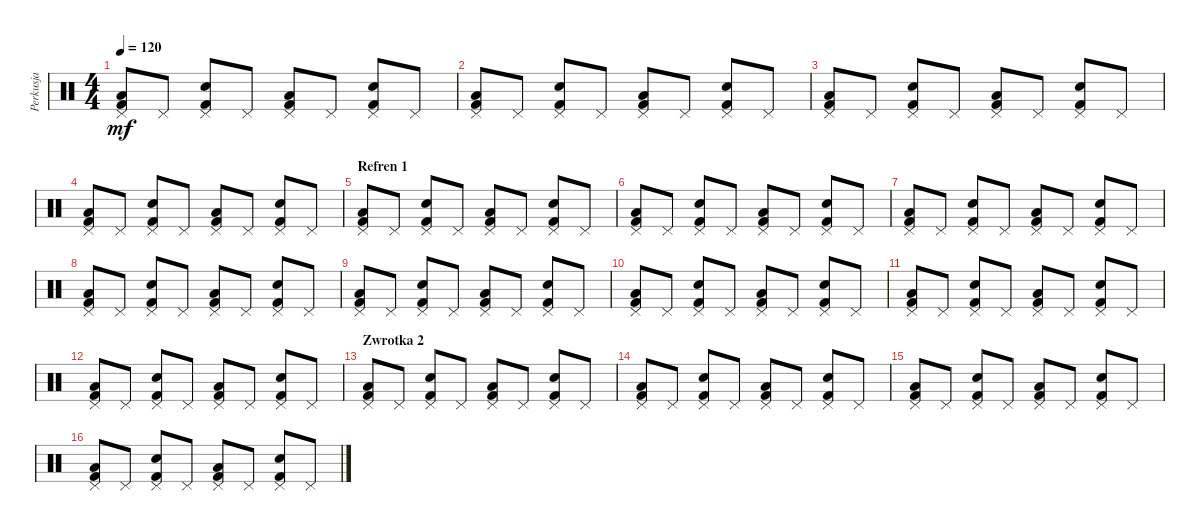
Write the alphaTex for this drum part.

\track ("Perkusja" "Perkusja") {instrument percussion}
\staff {score}
\articulation defaults
\ts (4 4)
\tempo 120
\clef neutral
\ks c
("Pedal Hi-Hat (hit)" "Low Floor Tom (hit)" "Kick (hit) 2").8{dy mf} "Pedal Hi-Hat (hit)".8 ("Pedal Hi-Hat (hit)" "Electric Snare (hit)" "Kick (hit) 2").8 "Pedal Hi-Hat (hit)".8 ("Pedal Hi-Hat (hit)" "Low Floor Tom (hit)" "Kick (hit) 2").8 "Pedal Hi-Hat (hit)".8 ("Pedal Hi-Hat (hit)" "Electric Snare (hit)" "Kick (hit) 2").8 "Pedal Hi-Hat (hit)".8 |
("Pedal Hi-Hat (hit)" "Low Floor Tom (hit)" "Kick (hit) 2").8 "Pedal Hi-Hat (hit)".8 ("Pedal Hi-Hat (hit)" "Electric Snare (hit)" "Kick (hit) 2").8 "Pedal Hi-Hat (hit)".8 ("Pedal Hi-Hat (hit)" "Low Floor Tom (hit)" "Kick (hit) 2").8 "Pedal Hi-Hat (hit)".8 ("Pedal Hi-Hat (hit)" "Electric Snare (hit)" "Kick (hit) 2").8 "Pedal Hi-Hat (hit)".8 |
("Pedal Hi-Hat (hit)" "Low Floor Tom (hit)" "Kick (hit) 2").8 "Pedal Hi-Hat (hit)".8 ("Pedal Hi-Hat (hit)" "Electric Snare (hit)" "Kick (hit) 2").8 "Pedal Hi-Hat (hit)".8 ("Pedal Hi-Hat (hit)" "Low Floor Tom (hit)" "Kick (hit) 2").8 "Pedal Hi-Hat (hit)".8 ("Pedal Hi-Hat (hit)" "Electric Snare (hit)" "Kick (hit) 2").8 "Pedal Hi-Hat (hit)".8 |
("Pedal Hi-Hat (hit)" "Low Floor Tom (hit)" "Kick (hit) 2").8 "Pedal Hi-Hat (hit)".8 ("Pedal Hi-Hat (hit)" "Electric Snare (hit)" "Kick (hit) 2").8 "Pedal Hi-Hat (hit)".8 ("Pedal Hi-Hat (hit)" "Low Floor Tom (hit)" "Kick (hit) 2").8 "Pedal Hi-Hat (hit)".8 ("Pedal Hi-Hat (hit)" "Electric Snare (hit)" "Kick (hit) 2").8 "Pedal Hi-Hat (hit)".8 |
\section ("" "Refren 1")
("Pedal Hi-Hat (hit)" "Low Floor Tom (hit)" "Kick (hit) 2").8 "Pedal Hi-Hat (hit)".8 ("Pedal Hi-Hat (hit)" "Electric Snare (hit)" "Kick (hit) 2").8 "Pedal Hi-Hat (hit)".8 ("Pedal Hi-Hat (hit)" "Low Floor Tom (hit)" "Kick (hit) 2").8 "Pedal Hi-Hat (hit)".8 ("Pedal Hi-Hat (hit)" "Electric Snare (hit)" "Kick (hit) 2").8 "Pedal Hi-Hat (hit)".8 |
("Pedal Hi-Hat (hit)" "Low Floor Tom (hit)" "Kick (hit) 2").8 "Pedal Hi-Hat (hit)".8 ("Pedal Hi-Hat (hit)" "Electric Snare (hit)" "Kick (hit) 2").8 "Pedal Hi-Hat (hit)".8 ("Pedal Hi-Hat (hit)" "Low Floor Tom (hit)" "Kick (hit) 2").8 "Pedal Hi-Hat (hit)".8 ("Pedal Hi-Hat (hit)" "Electric Snare (hit)" "Kick (hit) 2").8 "Pedal Hi-Hat (hit)".8 |
("Pedal Hi-Hat (hit)" "Low Floor Tom (hit)" "Kick (hit) 2").8 "Pedal Hi-Hat (hit)".8 ("Pedal Hi-Hat (hit)" "Electric Snare (hit)" "Kick (hit) 2").8 "Pedal Hi-Hat (hit)".8 ("Pedal Hi-Hat (hit)" "Low Floor Tom (hit)" "Kick (hit) 2").8 "Pedal Hi-Hat (hit)".8 ("Pedal Hi-Hat (hit)" "Electric Snare (hit)" "Kick (hit) 2").8 "Pedal Hi-Hat (hit)".8 |
("Pedal Hi-Hat (hit)" "Low Floor Tom (hit)" "Kick (hit) 2").8 "Pedal Hi-Hat (hit)".8 ("Pedal Hi-Hat (hit)" "Electric Snare (hit)" "Kick (hit) 2").8 "Pedal Hi-Hat (hit)".8 ("Pedal Hi-Hat (hit)" "Low Floor Tom (hit)" "Kick (hit) 2").8 "Pedal Hi-Hat (hit)".8 ("Pedal Hi-Hat (hit)" "Electric Snare (hit)" "Kick (hit) 2").8 "Pedal Hi-Hat (hit)".8 |
("Pedal Hi-Hat (hit)" "Low Floor Tom (hit)" "Kick (hit) 2").8 "Pedal Hi-Hat (hit)".8 ("Pedal Hi-Hat (hit)" "Electric Snare (hit)" "Kick (hit) 2").8 "Pedal Hi-Hat (hit)".8 ("Pedal Hi-Hat (hit)" "Low Floor Tom (hit)" "Kick (hit) 2").8 "Pedal Hi-Hat (hit)".8 ("Pedal Hi-Hat (hit)" "Electric Snare (hit)" "Kick (hit) 2").8 "Pedal Hi-Hat (hit)".8 |
("Pedal Hi-Hat (hit)" "Low Floor Tom (hit)" "Kick (hit) 2").8 "Pedal Hi-Hat (hit)".8 ("Pedal Hi-Hat (hit)" "Electric Snare (hit)" "Kick (hit) 2").8 "Pedal Hi-Hat (hit)".8 ("Pedal Hi-Hat (hit)" "Low Floor Tom (hit)" "Kick (hit) 2").8 "Pedal Hi-Hat (hit)".8 ("Pedal Hi-Hat (hit)" "Electric Snare (hit)" "Kick (hit) 2").8 "Pedal Hi-Hat (hit)".8 |
("Pedal Hi-Hat (hit)" "Low Floor Tom (hit)" "Kick (hit) 2").8 "Pedal Hi-Hat (hit)".8 ("Pedal Hi-Hat (hit)" "Electric Snare (hit)" "Kick (hit) 2").8 "Pedal Hi-Hat (hit)".8 ("Pedal Hi-Hat (hit)" "Low Floor Tom (hit)" "Kick (hit) 2").8 "Pedal Hi-Hat (hit)".8 ("Pedal Hi-Hat (hit)" "Electric Snare (hit)" "Kick (hit) 2").8 "Pedal Hi-Hat (hit)".8 |
("Pedal Hi-Hat (hit)" "Low Floor Tom (hit)" "Kick (hit) 2").8 "Pedal Hi-Hat (hit)".8 ("Pedal Hi-Hat (hit)" "Electric Snare (hit)" "Kick (hit) 2").8 "Pedal Hi-Hat (hit)".8 ("Pedal Hi-Hat (hit)" "Low Floor Tom (hit)" "Kick (hit) 2").8 "Pedal Hi-Hat (hit)".8 ("Pedal Hi-Hat (hit)" "Electric Snare (hit)" "Kick (hit) 2").8 "Pedal Hi-Hat (hit)".8 |
\section ("" "Zwrotka 2")
("Pedal Hi-Hat (hit)" "Low Floor Tom (hit)" "Kick (hit) 2").8 "Pedal Hi-Hat (hit)".8 ("Pedal Hi-Hat (hit)" "Electric Snare (hit)" "Kick (hit) 2").8 "Pedal Hi-Hat (hit)".8 ("Pedal Hi-Hat (hit)" "Low Floor Tom (hit)" "Kick (hit) 2").8 "Pedal Hi-Hat (hit)".8 ("Pedal Hi-Hat (hit)" "Electric Snare (hit)" "Kick (hit) 2").8 "Pedal Hi-Hat (hit)".8 |
("Pedal Hi-Hat (hit)" "Low Floor Tom (hit)" "Kick (hit) 2").8 "Pedal Hi-Hat (hit)".8 ("Pedal Hi-Hat (hit)" "Electric Snare (hit)" "Kick (hit) 2").8 "Pedal Hi-Hat (hit)".8 ("Pedal Hi-Hat (hit)" "Low Floor Tom (hit)" "Kick (hit) 2").8 "Pedal Hi-Hat (hit)".8 ("Pedal Hi-Hat (hit)" "Electric Snare (hit)" "Kick (hit) 2").8 "Pedal Hi-Hat (hit)".8 |
("Pedal Hi-Hat (hit)" "Low Floor Tom (hit)" "Kick (hit) 2").8 "Pedal Hi-Hat (hit)".8 ("Pedal Hi-Hat (hit)" "Electric Snare (hit)" "Kick (hit) 2").8 "Pedal Hi-Hat (hit)".8 ("Pedal Hi-Hat (hit)" "Low Floor Tom (hit)" "Kick (hit) 2").8 "Pedal Hi-Hat (hit)".8 ("Pedal Hi-Hat (hit)" "Electric Snare (hit)" "Kick (hit) 2").8 "Pedal Hi-Hat (hit)".8 |
("Pedal Hi-Hat (hit)" "Low Floor Tom (hit)" "Kick (hit) 2").8 "Pedal Hi-Hat (hit)".8 ("Pedal Hi-Hat (hit)" "Electric Snare (hit)" "Kick (hit) 2").8 "Pedal Hi-Hat (hit)".8 ("Pedal Hi-Hat (hit)" "Low Floor Tom (hit)" "Kick (hit) 2").8 "Pedal Hi-Hat (hit)".8 ("Pedal Hi-Hat (hit)" "Electric Snare (hit)" "Kick (hit) 2").8 "Pedal Hi-Hat (hit)".8
